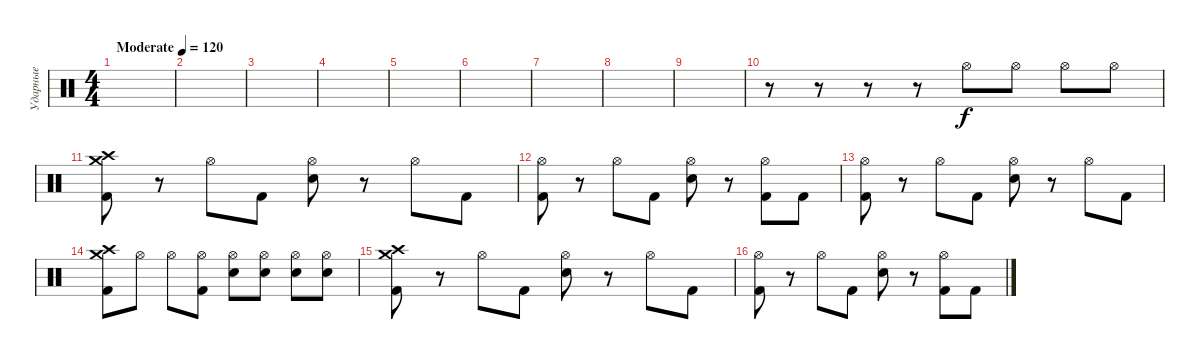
\track ("Ударные" "Ударные") {instrument percussion}
\staff {score}
\articulation defaults
\ts (4 4)
\tempo (120 "Moderate")
\clef neutral
\ks c
|
|
|
|
|
|
|
|
|
r.8 r.8 r.8 r.8 "Hi-Hat (open)".8 "Hi-Hat (open)".8 "Hi-Hat (open)".8 "Hi-Hat (open)".8 |
("Crash high (hit)" "Crash medium (hit)" "Kick (hit) 2").8 r.8 "Hi-Hat (open)".8 "Kick (hit) 2".8 ("Hi-Hat (open)" "Electric Snare (hit)").8 r.8 "Hi-Hat (open)".8 "Kick (hit) 2".8 |
("Hi-Hat (open)" "Kick (hit) 2").8 r.8 "Hi-Hat (open)".8 "Kick (hit) 2".8 ("Hi-Hat (open)" "Electric Snare (hit)").8 r.8 ("Hi-Hat (open)" "Kick (hit) 2").8 "Kick (hit) 2".8 |
("Hi-Hat (open)" "Kick (hit) 2").8 r.8 "Hi-Hat (open)".8 "Kick (hit) 2".8 ("Hi-Hat (open)" "Electric Snare (hit)").8 r.8 "Hi-Hat (open)".8 "Kick (hit) 2".8 |
("Crash high (hit)" "Crash medium (hit)" "Kick (hit) 2").8 "Hi-Hat (open)".8 "Hi-Hat (open)".8 ("Hi-Hat (open)" "Kick (hit) 2").8 ("Hi-Hat (open)" "Electric Snare (hit)").8 ("Hi-Hat (open)" "Electric Snare (hit)").8 ("Hi-Hat (open)" "Electric Snare (hit)").8 ("Hi-Hat (open)" "Electric Snare (hit)").8 |
("Crash high (hit)" "Crash medium (hit)" "Kick (hit) 2").8 r.8 "Hi-Hat (open)".8 "Kick (hit) 2".8 ("Hi-Hat (open)" "Electric Snare (hit)").8 r.8 "Hi-Hat (open)".8 "Kick (hit) 2".8 |
("Hi-Hat (open)" "Kick (hit) 2").8 r.8 "Hi-Hat (open)".8 "Kick (hit) 2".8 ("Hi-Hat (open)" "Electric Snare (hit)").8 r.8 ("Hi-Hat (open)" "Kick (hit) 2").8 "Kick (hit) 2".8
